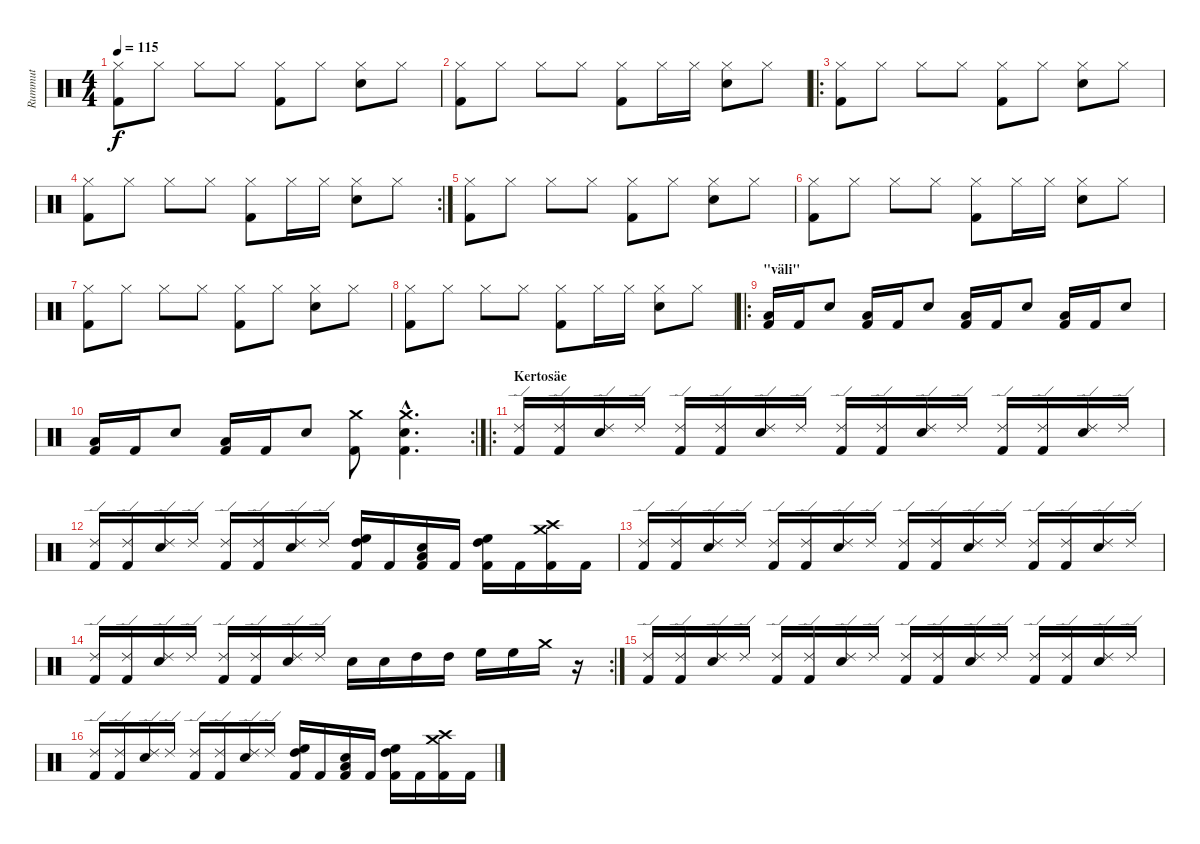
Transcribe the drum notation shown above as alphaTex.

\track ("Rummut" "Rummut") {instrument percussion}
\staff {score}
\articulation defaults
\ts (4 4)
\tempo 115
\clef neutral
\ks c
("Hi-Hat (closed)" "Kick (hit) 2").8{dy f} "Hi-Hat (closed)".8 "Hi-Hat (closed)".8 "Hi-Hat (closed)".8 ("Hi-Hat (closed)" "Kick (hit) 2").8 "Hi-Hat (closed)".8 ("Snare (hit) 2" "Hi-Hat (closed)").8 "Hi-Hat (closed)".8 |
("Hi-Hat (closed)" "Kick (hit) 2").8 "Hi-Hat (closed)".8 "Hi-Hat (closed)".8 "Hi-Hat (closed)".8 ("Hi-Hat (closed)" "Kick (hit) 2").8 "Hi-Hat (closed)".16 "Hi-Hat (closed)".16 ("Snare (hit) 2" "Hi-Hat (closed)").8 "Hi-Hat (closed)".8 |
\ro
("Hi-Hat (closed)" "Kick (hit) 2").8 "Hi-Hat (closed)".8 "Hi-Hat (closed)".8 "Hi-Hat (closed)".8 ("Hi-Hat (closed)" "Kick (hit) 2").8 "Hi-Hat (closed)".8 ("Snare (hit) 2" "Hi-Hat (closed)").8 "Hi-Hat (closed)".8 |
\rc 2
("Hi-Hat (closed)" "Kick (hit) 2").8 "Hi-Hat (closed)".8 "Hi-Hat (closed)".8 "Hi-Hat (closed)".8 ("Hi-Hat (closed)" "Kick (hit) 2").8 "Hi-Hat (closed)".16 "Hi-Hat (closed)".16 ("Snare (hit) 2" "Hi-Hat (closed)").8 "Hi-Hat (closed)".8 |
("Hi-Hat (closed)" "Kick (hit) 2").8 "Hi-Hat (closed)".8 "Hi-Hat (closed)".8 "Hi-Hat (closed)".8 ("Hi-Hat (closed)" "Kick (hit) 2").8 "Hi-Hat (closed)".8 ("Snare (hit) 2" "Hi-Hat (closed)").8 "Hi-Hat (closed)".8 |
("Hi-Hat (closed)" "Kick (hit) 2").8 "Hi-Hat (closed)".8 "Hi-Hat (closed)".8 "Hi-Hat (closed)".8 ("Hi-Hat (closed)" "Kick (hit) 2").8 "Hi-Hat (closed)".16 "Hi-Hat (closed)".16 ("Snare (hit) 2" "Hi-Hat (closed)").8 "Hi-Hat (closed)".8 |
("Hi-Hat (closed)" "Kick (hit) 2").8 "Hi-Hat (closed)".8 "Hi-Hat (closed)".8 "Hi-Hat (closed)".8 ("Hi-Hat (closed)" "Kick (hit) 2").8 "Hi-Hat (closed)".8 ("Snare (hit) 2" "Hi-Hat (closed)").8 "Hi-Hat (closed)".8 |
("Hi-Hat (closed)" "Kick (hit) 2").8 "Hi-Hat (closed)".8 "Hi-Hat (closed)".8 "Hi-Hat (closed)".8 ("Hi-Hat (closed)" "Kick (hit) 2").8 "Hi-Hat (closed)".16 "Hi-Hat (closed)".16 ("Snare (hit) 2" "Hi-Hat (closed)").8 "Hi-Hat (closed)".8 |
\ro
\section ("" "\"väli\"")
("Low Tom (hit)" "Kick (hit) 2").16 "Kick (hit) 2".16 "Snare (hit) 2".8 ("Low Tom (hit)" "Kick (hit) 2").16 "Kick (hit) 2".16 "Snare (hit) 2".8 ("Low Tom (hit)" "Kick (hit) 2").16 "Kick (hit) 2".16 "Snare (hit) 2".8 ("Low Tom (hit)" "Kick (hit) 2").16 "Kick (hit) 2".16 "Snare (hit) 2".8 |
\rc 2
("Low Tom (hit)" "Kick (hit) 2").16 "Kick (hit) 2".16 "Snare (hit) 2".8 ("Low Tom (hit)" "Kick (hit) 2").16 "Kick (hit) 2".16 "Snare (hit) 2".8 ("Crash medium (hit)" "Kick (hit) 2").8 ("Crash medium (hit)"{hac} "Snare (hit) 2"{hac} "Kick (hit) 2"{hac}).4{d} |
\ro
\section ("" "Kertosäe")
("Ride (edge) 2" "Kick (hit) 2").16 ("Ride (edge) 2" "Kick (hit) 2").16 ("Snare (hit) 2" "Ride (edge) 2").16 "Ride (edge) 2".16 ("Ride (edge) 2" "Kick (hit) 2").16 ("Ride (edge) 2" "Kick (hit) 2").16 ("Snare (hit) 2" "Ride (edge) 2").16 "Ride (edge) 2".16 ("Ride (edge) 2" "Kick (hit) 2").16 ("Ride (edge) 2" "Kick (hit) 2").16 ("Snare (hit) 2" "Ride (edge) 2").16 "Ride (edge) 2".16 ("Ride (edge) 2" "Kick (hit) 2").16 ("Ride (edge) 2" "Kick (hit) 2").16 ("Snare (hit) 2" "Ride (edge) 2").16 "Ride (edge) 2".16 |
("Ride (edge) 2" "Kick (hit) 2").16 ("Ride (edge) 2" "Kick (hit) 2").16 ("Snare (hit) 2" "Ride (edge) 2").16 "Ride (edge) 2".16 ("Ride (edge) 2" "Kick (hit) 2").16 ("Ride (edge) 2" "Kick (hit) 2").16 ("Snare (hit) 2" "Ride (edge) 2").16 "Ride (edge) 2".16 ("High Floor Tom (hit)" "High Tom (hit)" "Kick (hit) 2").16 "Kick (hit) 2".16 ("Snare (hit) 2" "Low Tom (hit)" "Kick (hit) 2").16 "Kick (hit) 2".16 ("High Floor Tom (hit)" "High Tom (hit)" "Kick (hit) 2").16 "Kick (hit) 2".16 ("Crash high (hit)" "Crash medium (hit)" "Kick (hit) 2").16 "Kick (hit) 2".16 |
("Ride (edge) 2" "Kick (hit) 2").16 ("Ride (edge) 2" "Kick (hit) 2").16 ("Snare (hit) 2" "Ride (edge) 2").16 "Ride (edge) 2".16 ("Ride (edge) 2" "Kick (hit) 2").16 ("Ride (edge) 2" "Kick (hit) 2").16 ("Snare (hit) 2" "Ride (edge) 2").16 "Ride (edge) 2".16 ("Ride (edge) 2" "Kick (hit) 2").16 ("Ride (edge) 2" "Kick (hit) 2").16 ("Snare (hit) 2" "Ride (edge) 2").16 "Ride (edge) 2".16 ("Ride (edge) 2" "Kick (hit) 2").16 ("Ride (edge) 2" "Kick (hit) 2").16 ("Snare (hit) 2" "Ride (edge) 2").16 "Ride (edge) 2".16 |
\rc 2
("Ride (edge) 2" "Kick (hit) 2").16 ("Ride (edge) 2" "Kick (hit) 2").16 ("Snare (hit) 2" "Ride (edge) 2").16 "Ride (edge) 2".16 ("Ride (edge) 2" "Kick (hit) 2").16 ("Ride (edge) 2" "Kick (hit) 2").16 ("Snare (hit) 2" "Ride (edge) 2").16 "Ride (edge) 2".16 "Snare (hit) 2".16 "Snare (hit) 2".16 "High Tom (hit)".16 "High Tom (hit)".16 "High Floor Tom (hit)".16 "High Floor Tom (hit)".16 "Crash medium (hit)".16 r.16 |
("Ride (edge) 2" "Kick (hit) 2").16 ("Ride (edge) 2" "Kick (hit) 2").16 ("Snare (hit) 2" "Ride (edge) 2").16 "Ride (edge) 2".16 ("Ride (edge) 2" "Kick (hit) 2").16 ("Ride (edge) 2" "Kick (hit) 2").16 ("Snare (hit) 2" "Ride (edge) 2").16 "Ride (edge) 2".16 ("Ride (edge) 2" "Kick (hit) 2").16 ("Ride (edge) 2" "Kick (hit) 2").16 ("Snare (hit) 2" "Ride (edge) 2").16 "Ride (edge) 2".16 ("Ride (edge) 2" "Kick (hit) 2").16 ("Ride (edge) 2" "Kick (hit) 2").16 ("Snare (hit) 2" "Ride (edge) 2").16 "Ride (edge) 2".16 |
("Ride (edge) 2" "Kick (hit) 2").16 ("Ride (edge) 2" "Kick (hit) 2").16 ("Snare (hit) 2" "Ride (edge) 2").16 "Ride (edge) 2".16 ("Ride (edge) 2" "Kick (hit) 2").16 ("Ride (edge) 2" "Kick (hit) 2").16 ("Snare (hit) 2" "Ride (edge) 2").16 "Ride (edge) 2".16 ("High Floor Tom (hit)" "High Tom (hit)" "Kick (hit) 2").16 "Kick (hit) 2".16 ("Snare (hit) 2" "Low Tom (hit)" "Kick (hit) 2").16 "Kick (hit) 2".16 ("High Floor Tom (hit)" "High Tom (hit)" "Kick (hit) 2").16 "Kick (hit) 2".16 ("Crash medium (hit)" "Crash high (hit)" "Kick (hit) 2").16 "Kick (hit) 2".16
